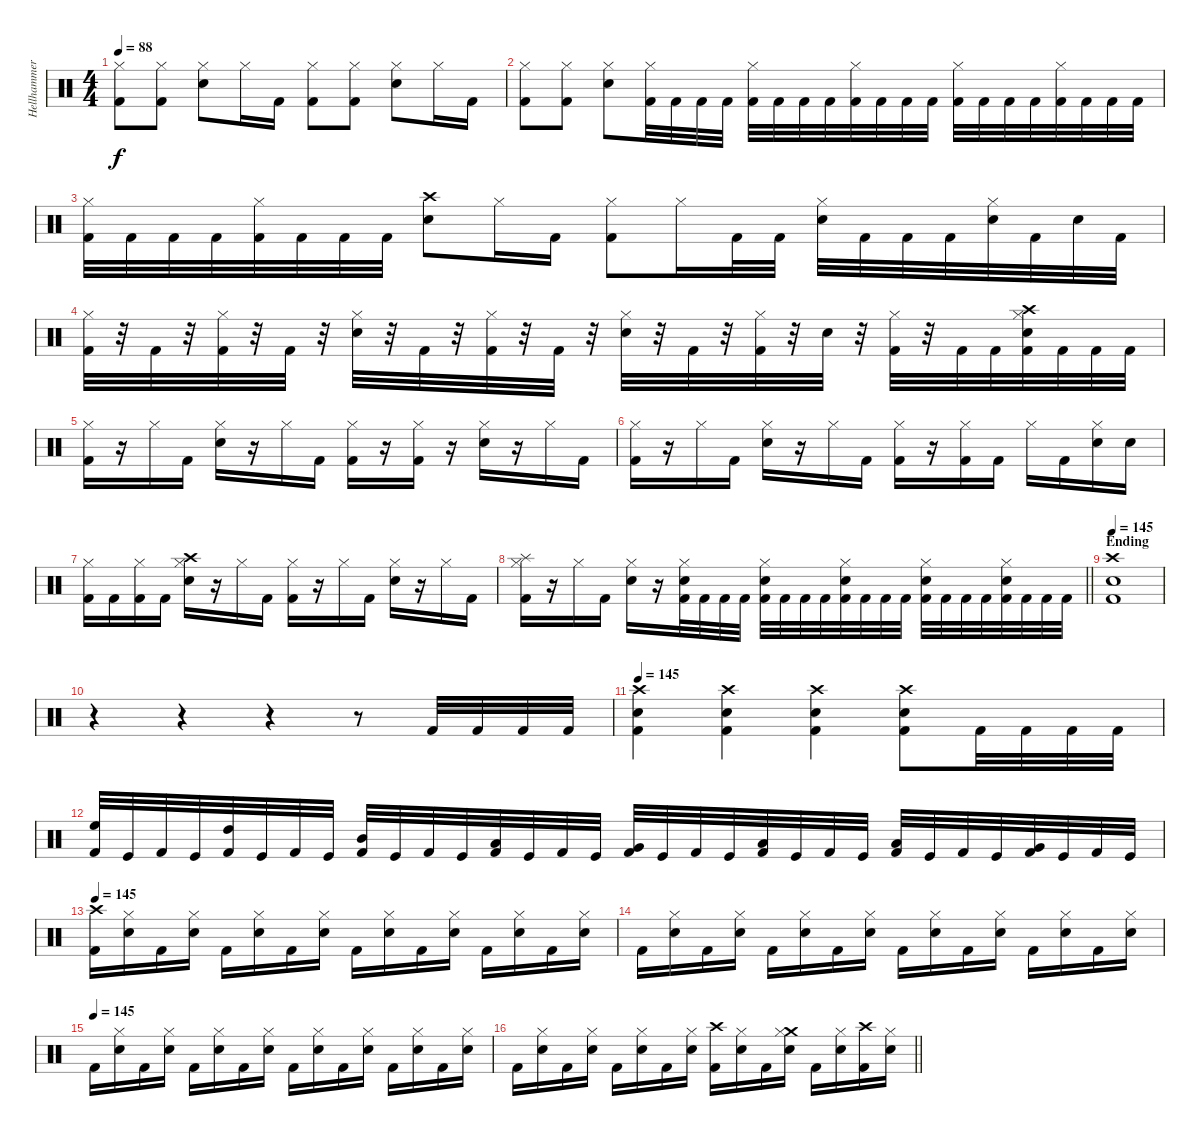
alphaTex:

\track ("Hellhammer" "Hellhammer") {instrument percussion}
\staff {score}
\articulation defaults
\ts (4 4)
\tempo 88
\clef neutral
\ks c
("Hi-Hat (closed)" "Kick (hit) 2").8{dy f} ("Hi-Hat (closed)" "Kick (hit) 2").8 ("Hi-Hat (closed)" "Snare (hit) 2").8 "Hi-Hat (closed)".16 "Kick (hit) 2".16 ("Hi-Hat (closed)" "Kick (hit) 2").8 ("Hi-Hat (closed)" "Kick (hit) 2").8 ("Hi-Hat (closed)" "Snare (hit) 2").8 "Hi-Hat (closed)".16 "Kick (hit) 2".16 |
("Hi-Hat (closed)" "Kick (hit) 2").8 ("Hi-Hat (closed)" "Kick (hit) 2").8 ("Hi-Hat (closed)" "Snare (hit) 2").8 ("Hi-Hat (closed)" "Kick (hit) 2").32 "Kick (hit) 2".32 "Kick (hit) 2".32 "Kick (hit) 2".32 ("Hi-Hat (closed)" "Kick (hit) 2").32 "Kick (hit) 2".32 "Kick (hit) 2".32 "Kick (hit) 2".32 ("Hi-Hat (closed)" "Kick (hit) 2").32 "Kick (hit) 2".32 "Kick (hit) 2".32 "Kick (hit) 2".32 ("Hi-Hat (closed)" "Kick (hit) 2").32 "Kick (hit) 2".32 "Kick (hit) 2".32 "Kick (hit) 2".32 ("Hi-Hat (closed)" "Kick (hit) 2").32 "Kick (hit) 2".32 "Kick (hit) 2".32 "Kick (hit) 2".32 |
("Hi-Hat (closed)" "Kick (hit) 2").32 "Kick (hit) 2".32 "Kick (hit) 2".32 "Kick (hit) 2".32 ("Hi-Hat (closed)" "Kick (hit) 2").32 "Kick (hit) 2".32 "Kick (hit) 2".32 "Kick (hit) 2".32 ("Crash high (hit)" "Snare (hit) 2").8 "Hi-Hat (closed)".16 "Kick (hit) 2".16 ("Hi-Hat (closed)" "Kick (hit) 2").8 "Hi-Hat (closed)".16 "Kick (hit) 2".32 "Kick (hit) 2".32 ("Hi-Hat (closed)" "Snare (hit) 2").32 "Kick (hit) 2".32 "Kick (hit) 2".32 "Kick (hit) 2".32 ("Hi-Hat (closed)" "Snare (hit) 2").32 "Kick (hit) 2".32 "Snare (hit) 2".32 "Kick (hit) 2".32 |
("Hi-Hat (closed)" "Kick (hit) 2").32 r.32 "Kick (hit) 2".32 r.32 ("Hi-Hat (closed)" "Kick (hit) 2").32 r.32 "Kick (hit) 2".32 r.32 ("Hi-Hat (closed)" "Snare (hit) 2").32 r.32 "Kick (hit) 2".32 r.32 ("Hi-Hat (closed)" "Kick (hit) 2").32 r.32 "Kick (hit) 2".32 r.32 ("Hi-Hat (closed)" "Snare (hit) 2").32 r.32 "Kick (hit) 2".32 r.32 ("Hi-Hat (closed)" "Kick (hit) 2").32 r.32 "Snare (hit) 2".32 r.32 ("Hi-Hat (closed)" "Kick (hit) 2").32 r.32 "Kick (hit) 2".32 "Kick (hit) 2".32 ("Crash high (hit)" "Hi-Hat (closed)" "Snare (hit) 2" "Kick (hit) 2").32 "Kick (hit) 2".32 "Kick (hit) 2".32 "Kick (hit) 2".32 |
("Hi-Hat (closed)" "Kick (hit) 2").16 r.16 "Hi-Hat (closed)".16 "Kick (hit) 2".16 ("Hi-Hat (closed)" "Snare (hit) 2").16 r.16 "Hi-Hat (closed)".16 "Kick (hit) 2".16 ("Hi-Hat (closed)" "Kick (hit) 2").16 r.16 ("Hi-Hat (closed)" "Kick (hit) 2").16 r.16 ("Hi-Hat (closed)" "Snare (hit) 2").16 r.16 "Hi-Hat (closed)".16 "Kick (hit) 2".16 |
("Hi-Hat (closed)" "Kick (hit) 2").16 r.16 "Hi-Hat (closed)".16 "Kick (hit) 2".16 ("Hi-Hat (closed)" "Snare (hit) 2").16 r.16 "Hi-Hat (closed)".16 "Kick (hit) 2".16 ("Hi-Hat (closed)" "Kick (hit) 2").16 r.16 ("Hi-Hat (closed)" "Kick (hit) 2").16 "Kick (hit) 2".16 "Hi-Hat (closed)".16 "Kick (hit) 2".16 ("Hi-Hat (closed)" "Snare (hit) 2").16 "Snare (hit) 2".16 |
("Hi-Hat (closed)" "Kick (hit) 2").16 "Kick (hit) 2".16 ("Hi-Hat (closed)" "Kick (hit) 2").16 "Kick (hit) 2".16 ("Hi-Hat (closed)" "Crash high (hit)" "Snare (hit) 2").16 r.16 "Hi-Hat (closed)".16 "Kick (hit) 2".16 ("Hi-Hat (closed)" "Kick (hit) 2").16 r.16 "Hi-Hat (closed)".16 "Kick (hit) 2".16 ("Hi-Hat (closed)" "Snare (hit) 2").16 r.16 "Hi-Hat (closed)".16 "Kick (hit) 2".16 |
\barLineRight lightlight
("Hi-Hat (closed)" "Splash (hit)" "Kick (hit) 2").16 r.16 "Hi-Hat (closed)".16 "Kick (hit) 2".16 ("Hi-Hat (closed)" "Snare (hit) 2").16 r.16 ("Hi-Hat (closed)" "Snare (hit) 2" "Kick (hit) 2").32 "Kick (hit) 2".32 "Kick (hit) 2".32 "Kick (hit) 2".32 ("Hi-Hat (closed)" "Snare (hit) 2" "Kick (hit) 2").32 "Kick (hit) 2".32 "Kick (hit) 2".32 "Kick (hit) 2".32 ("Hi-Hat (closed)" "Snare (hit) 2" "Kick (hit) 2").32 "Kick (hit) 2".32 "Kick (hit) 2".32 "Kick (hit) 2".32 ("Hi-Hat (closed)" "Snare (hit) 2" "Kick (hit) 2").32 "Kick (hit) 2".32 "Kick (hit) 2".32 "Kick (hit) 2".32 ("Hi-Hat (closed)" "Snare (hit) 2" "Kick (hit) 2").32 "Kick (hit) 2".32 "Kick (hit) 2".32 "Kick (hit) 2".32 |
\section ("" "Ending")
\tempo 145
("Crash high (hit)" "Kick (hit) 2" "Snare (hit) 2").1 |
r.4 r.4 r.4 r.8 "Kick (hit) 2".32 "Kick (hit) 2".32 "Kick (hit) 2".32 "Kick (hit) 2".32 |
\tempo 145
("Crash high (hit)" "Snare (hit) 2" "Kick (hit) 2").4 ("Crash high (hit)" "Snare (hit) 2" "Kick (hit) 2").4 ("Crash high (hit)" "Snare (hit) 2" "Kick (hit) 2").4 ("Crash high (hit)" "Snare (hit) 2" "Kick (hit) 2").8 "Kick (hit) 2".32 "Kick (hit) 2".32 "Kick (hit) 2".32 "Kick (hit) 2".32 |
("High Floor Tom (hit)" "Kick (hit) 2").32 "Kick (hit)".32 "Kick (hit) 2".32 "Kick (hit)".32 ("High Tom (hit)" "Kick (hit) 2").32 "Kick (hit)".32 "Kick (hit) 2".32 "Kick (hit)".32 ("Mid Tom (hit)" "Kick (hit) 2").32 "Kick (hit)".32 "Kick (hit) 2".32 "Kick (hit)".32 ("Low Tom (hit)" "Kick (hit) 2").32 "Kick (hit)".32 "Kick (hit) 2".32 "Kick (hit)".32 ("Very Low Tom (hit)" "Kick (hit) 2").32 "Kick (hit)".32 "Kick (hit) 2".32 "Kick (hit)".32 ("Low Floor Tom (hit)" "Kick (hit) 2").32 "Kick (hit)".32 "Kick (hit) 2".32 "Kick (hit)".32 ("Low Tom (hit)" "Kick (hit) 2").32 "Kick (hit)".32 "Kick (hit) 2".32 "Kick (hit)".32 ("Very Low Tom (hit)" "Kick (hit) 2").32 "Kick (hit)".32 "Kick (hit) 2".32 "Kick (hit)".32 |
\tempo 145
("Crash high (hit)" "Kick (hit) 2").16 ("Hi-Hat (closed)" "Snare (hit) 2").16 "Kick (hit) 2".16 ("Hi-Hat (closed)" "Snare (hit) 2").16 "Kick (hit) 2".16 ("Hi-Hat (closed)" "Snare (hit) 2").16 "Kick (hit) 2".16 ("Hi-Hat (closed)" "Snare (hit) 2").16 "Kick (hit) 2".16 ("Hi-Hat (closed)" "Snare (hit) 2").16 "Kick (hit) 2".16 ("Hi-Hat (closed)" "Snare (hit) 2").16 "Kick (hit) 2".16 ("Hi-Hat (closed)" "Snare (hit) 2").16 "Kick (hit) 2".16 ("Hi-Hat (closed)" "Snare (hit) 2").16 |
"Kick (hit) 2".16 ("Hi-Hat (closed)" "Snare (hit) 2").16 "Kick (hit) 2".16 ("Hi-Hat (closed)" "Snare (hit) 2").16 "Kick (hit) 2".16 ("Hi-Hat (closed)" "Snare (hit) 2").16 "Kick (hit) 2".16 ("Hi-Hat (closed)" "Snare (hit) 2").16 "Kick (hit) 2".16 ("Hi-Hat (closed)" "Snare (hit) 2").16 "Kick (hit) 2".16 ("Hi-Hat (closed)" "Snare (hit) 2").16 "Kick (hit) 2".16 ("Hi-Hat (closed)" "Snare (hit) 2").16 "Kick (hit) 2".16 ("Hi-Hat (closed)" "Snare (hit) 2").16 |
\tempo (145)
"Kick (hit) 2".16 ("Hi-Hat (closed)" "Snare (hit) 2").16 "Kick (hit) 2".16 ("Hi-Hat (closed)" "Snare (hit) 2").16 "Kick (hit) 2".16 ("Hi-Hat (closed)" "Snare (hit) 2").16 "Kick (hit) 2".16 ("Hi-Hat (closed)" "Snare (hit) 2").16 "Kick (hit) 2".16 ("Hi-Hat (closed)" "Snare (hit) 2").16 "Kick (hit) 2".16 ("Hi-Hat (closed)" "Snare (hit) 2").16 "Kick (hit) 2".16 ("Hi-Hat (closed)" "Snare (hit) 2").16 "Kick (hit) 2".16 ("Hi-Hat (closed)" "Snare (hit) 2").16 |
\barLineRight lightlight "Kick (hit) 2".16
("Hi-Hat (closed)" "Snare (hit) 2").16 "Kick (hit) 2".16 ("Hi-Hat (closed)" "Snare (hit) 2").16 "Kick (hit) 2".16 ("Hi-Hat (closed)" "Snare (hit) 2").16 "Kick (hit) 2".16 ("Hi-Hat (closed)" "Snare (hit) 2").16 ("Crash high (hit)" "Kick (hit) 2").16 ("Hi-Hat (closed)" "Snare (hit) 2").16 "Kick (hit) 2".16 ("Crash medium (hit)" "Hi-Hat (closed)" "Snare (hit) 2").16 "Kick (hit) 2".16 ("Hi-Hat (closed)" "Snare (hit) 2").16 ("Crash high (hit)" "Kick (hit) 2").16 ("Hi-Hat (closed)" "Snare (hit) 2").16
